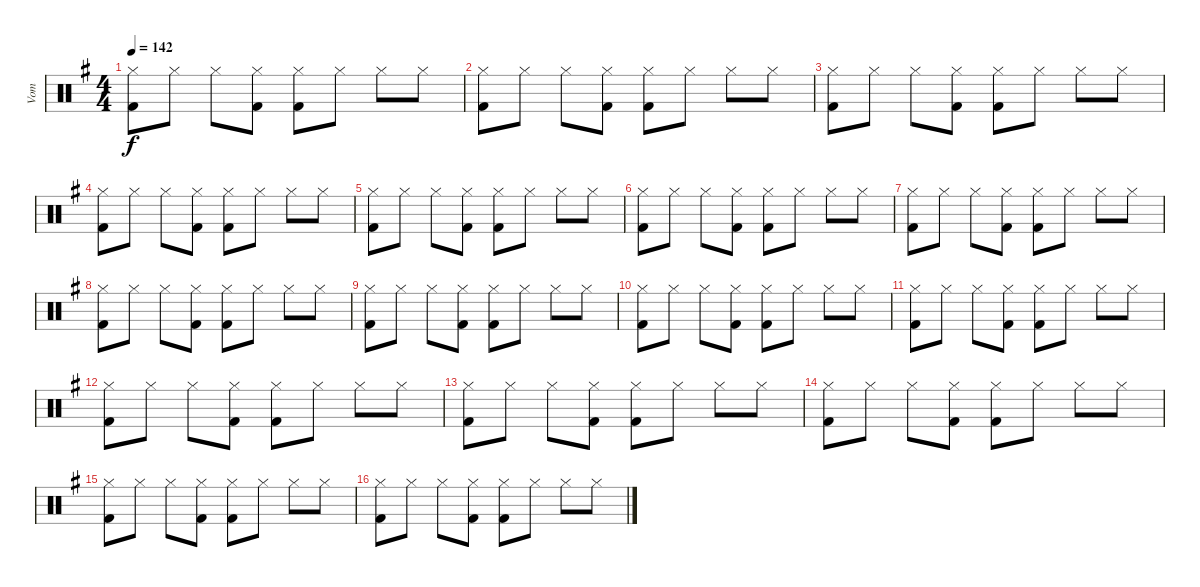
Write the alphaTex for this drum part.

\track ("Vom" "Vom") {instrument percussion}
\staff {score}
\articulation defaults
\ts (4 4)
\tempo 142
\clef neutral
\ks g
("Hi-Hat (closed)" "Kick (hit) 2").8{dy f} "Hi-Hat (closed)".8 "Hi-Hat (closed)".8 ("Hi-Hat (closed)" "Kick (hit) 2").8 ("Hi-Hat (closed)" "Kick (hit) 2").8 "Hi-Hat (closed)".8 "Hi-Hat (closed)".8 "Hi-Hat (closed)".8 |
("Hi-Hat (closed)" "Kick (hit) 2").8 "Hi-Hat (closed)".8 "Hi-Hat (closed)".8 ("Hi-Hat (closed)" "Kick (hit) 2").8 ("Hi-Hat (closed)" "Kick (hit) 2").8 "Hi-Hat (closed)".8 "Hi-Hat (closed)".8 "Hi-Hat (closed)".8 |
("Hi-Hat (closed)" "Kick (hit) 2").8 "Hi-Hat (closed)".8 "Hi-Hat (closed)".8 ("Hi-Hat (closed)" "Kick (hit) 2").8 ("Hi-Hat (closed)" "Kick (hit) 2").8 "Hi-Hat (closed)".8 "Hi-Hat (closed)".8 "Hi-Hat (closed)".8 |
("Hi-Hat (closed)" "Kick (hit) 2").8 "Hi-Hat (closed)".8 "Hi-Hat (closed)".8 ("Hi-Hat (closed)" "Kick (hit) 2").8 ("Hi-Hat (closed)" "Kick (hit) 2").8 "Hi-Hat (closed)".8 "Hi-Hat (closed)".8 "Hi-Hat (closed)".8 |
("Hi-Hat (closed)" "Kick (hit) 2").8 "Hi-Hat (closed)".8 "Hi-Hat (closed)".8 ("Hi-Hat (closed)" "Kick (hit) 2").8 ("Hi-Hat (closed)" "Kick (hit) 2").8 "Hi-Hat (closed)".8 "Hi-Hat (closed)".8 "Hi-Hat (closed)".8 |
("Hi-Hat (closed)" "Kick (hit) 2").8 "Hi-Hat (closed)".8 "Hi-Hat (closed)".8 ("Hi-Hat (closed)" "Kick (hit) 2").8 ("Hi-Hat (closed)" "Kick (hit) 2").8 "Hi-Hat (closed)".8 "Hi-Hat (closed)".8 "Hi-Hat (closed)".8 |
("Hi-Hat (closed)" "Kick (hit) 2").8 "Hi-Hat (closed)".8 "Hi-Hat (closed)".8 ("Hi-Hat (closed)" "Kick (hit) 2").8 ("Hi-Hat (closed)" "Kick (hit) 2").8 "Hi-Hat (closed)".8 "Hi-Hat (closed)".8 "Hi-Hat (closed)".8 |
("Hi-Hat (closed)" "Kick (hit) 2").8 "Hi-Hat (closed)".8 "Hi-Hat (closed)".8 ("Hi-Hat (closed)" "Kick (hit) 2").8 ("Hi-Hat (closed)" "Kick (hit) 2").8 "Hi-Hat (closed)".8 "Hi-Hat (closed)".8 "Hi-Hat (closed)".8 |
("Hi-Hat (closed)" "Kick (hit) 2").8 "Hi-Hat (closed)".8 "Hi-Hat (closed)".8 ("Hi-Hat (closed)" "Kick (hit) 2").8 ("Hi-Hat (closed)" "Kick (hit) 2").8 "Hi-Hat (closed)".8 "Hi-Hat (closed)".8 "Hi-Hat (closed)".8 |
("Hi-Hat (closed)" "Kick (hit) 2").8 "Hi-Hat (closed)".8 "Hi-Hat (closed)".8 ("Hi-Hat (closed)" "Kick (hit) 2").8 ("Hi-Hat (closed)" "Kick (hit) 2").8 "Hi-Hat (closed)".8 "Hi-Hat (closed)".8 "Hi-Hat (closed)".8 |
("Hi-Hat (closed)" "Kick (hit) 2").8 "Hi-Hat (closed)".8 "Hi-Hat (closed)".8 ("Hi-Hat (closed)" "Kick (hit) 2").8 ("Hi-Hat (closed)" "Kick (hit) 2").8 "Hi-Hat (closed)".8 "Hi-Hat (closed)".8 "Hi-Hat (closed)".8 |
("Hi-Hat (closed)" "Kick (hit) 2").8 "Hi-Hat (closed)".8 "Hi-Hat (closed)".8 ("Hi-Hat (closed)" "Kick (hit) 2").8 ("Hi-Hat (closed)" "Kick (hit) 2").8 "Hi-Hat (closed)".8 "Hi-Hat (closed)".8 "Hi-Hat (closed)".8 |
("Hi-Hat (closed)" "Kick (hit) 2").8 "Hi-Hat (closed)".8 "Hi-Hat (closed)".8 ("Hi-Hat (closed)" "Kick (hit) 2").8 ("Hi-Hat (closed)" "Kick (hit) 2").8 "Hi-Hat (closed)".8 "Hi-Hat (closed)".8 "Hi-Hat (closed)".8 |
("Hi-Hat (closed)" "Kick (hit) 2").8 "Hi-Hat (closed)".8 "Hi-Hat (closed)".8 ("Hi-Hat (closed)" "Kick (hit) 2").8 ("Hi-Hat (closed)" "Kick (hit) 2").8 "Hi-Hat (closed)".8 "Hi-Hat (closed)".8 "Hi-Hat (closed)".8 |
("Hi-Hat (closed)" "Kick (hit) 2").8 "Hi-Hat (closed)".8 "Hi-Hat (closed)".8 ("Hi-Hat (closed)" "Kick (hit) 2").8 ("Hi-Hat (closed)" "Kick (hit) 2").8 "Hi-Hat (closed)".8 "Hi-Hat (closed)".8 "Hi-Hat (closed)".8 |
("Hi-Hat (closed)" "Kick (hit) 2").8 "Hi-Hat (closed)".8 "Hi-Hat (closed)".8 ("Hi-Hat (closed)" "Kick (hit) 2").8 ("Hi-Hat (closed)" "Kick (hit) 2").8 "Hi-Hat (closed)".8 "Hi-Hat (closed)".8 "Hi-Hat (closed)".8
